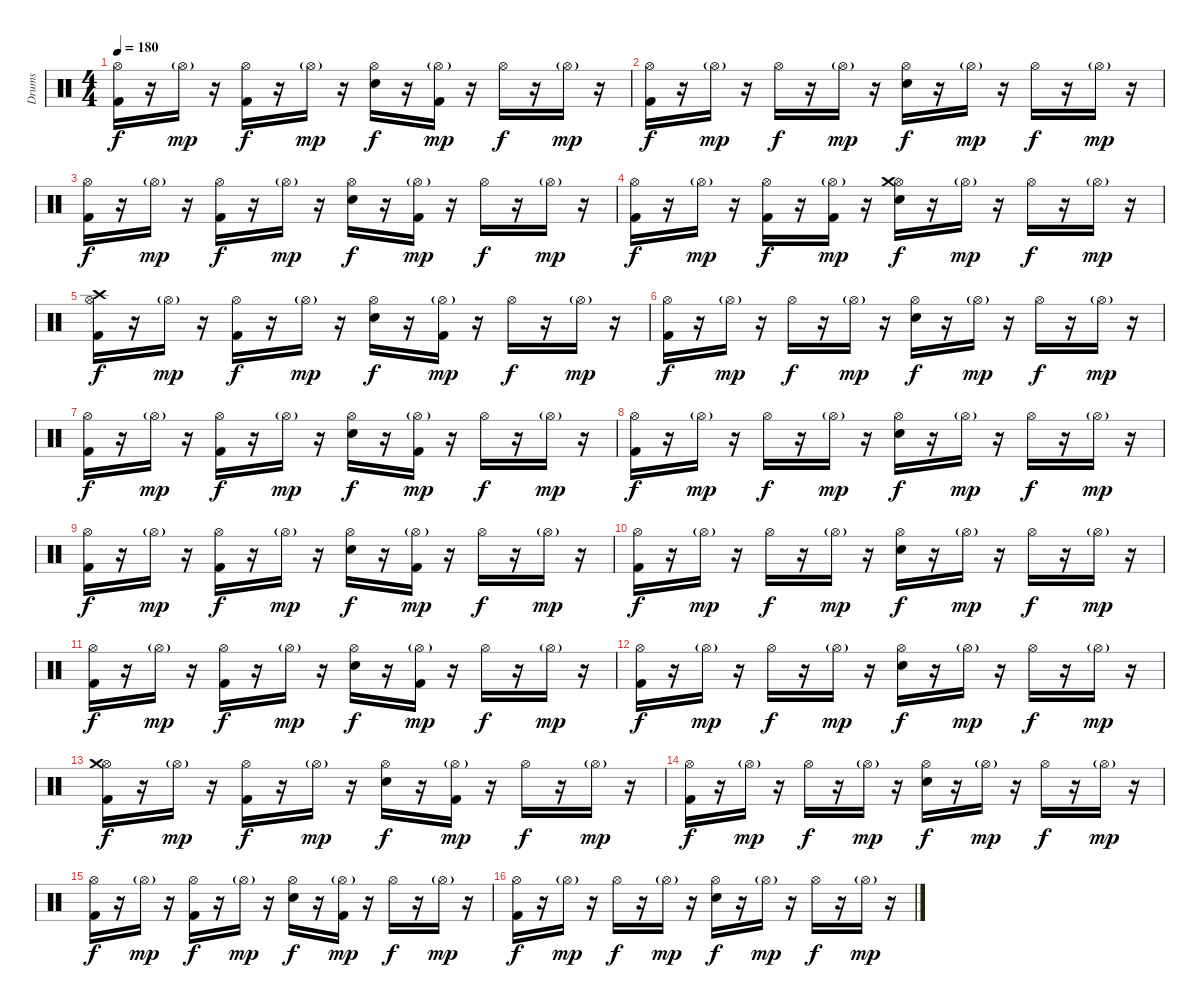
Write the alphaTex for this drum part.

\track ("Drums" "Drums") {instrument percussion}
\staff {score}
\articulation defaults
\ts (4 4)
\tempo 180
\clef neutral
\ks c
("Hi-Hat (open)" "Kick (hit) 2").16{dy f} r.16 "Hi-Hat (open)"{g}.16{dy mp} r.16 ("Hi-Hat (open)" "Kick (hit) 2").16{dy f} r.16 "Hi-Hat (open)"{g}.16{dy mp} r.16 ("Hi-Hat (open)" "Electric Snare (hit)").16{dy f} r.16 ("Hi-Hat (open)"{g} "Kick (hit) 2").16{dy mp} r.16 "Hi-Hat (open)".16{dy f} r.16 "Hi-Hat (open)"{g}.16{dy mp} r.16 |
("Hi-Hat (open)" "Kick (hit) 2").16{dy f} r.16 "Hi-Hat (open)"{g}.16{dy mp} r.16 "Hi-Hat (open)".16{dy f} r.16 "Hi-Hat (open)"{g}.16{dy mp} r.16 ("Hi-Hat (open)" "Electric Snare (hit)").16{dy f} r.16 "Hi-Hat (open)"{g}.16{dy mp} r.16 "Hi-Hat (open)".16{dy f} r.16 "Hi-Hat (open)"{g}.16{dy mp} r.16 |
("Hi-Hat (open)" "Kick (hit) 2").16{dy f} r.16 "Hi-Hat (open)"{g}.16{dy mp} r.16 ("Hi-Hat (open)" "Kick (hit) 2").16{dy f} r.16 "Hi-Hat (open)"{g}.16{dy mp} r.16 ("Hi-Hat (open)" "Electric Snare (hit)").16{dy f} r.16 ("Hi-Hat (open)"{g} "Kick (hit) 2").16{dy mp} r.16 "Hi-Hat (open)".16{dy f} r.16 "Hi-Hat (open)"{g}.16{dy mp} r.16 |
("Hi-Hat (open)" "Kick (hit) 2").16{dy f} r.16 "Hi-Hat (open)"{g}.16{dy mp} r.16 ("Hi-Hat (open)" "Kick (hit) 2").16{dy f} r.16 ("Hi-Hat (open)"{g} "Kick (hit) 2").16{dy mp} r.16 ("Hi-Hat (open)" "Electric Snare (hit)" "Crash medium (hit)").16{dy f} r.16 "Hi-Hat (open)"{g}.16{dy mp} r.16 "Hi-Hat (open)".16{dy f} r.16 "Hi-Hat (open)"{g}.16{dy mp} r.16 |
("Hi-Hat (open)" "Crash high (hit)" "Kick (hit) 2").16{dy f} r.16 "Hi-Hat (open)"{g}.16{dy mp} r.16 ("Hi-Hat (open)" "Kick (hit) 2").16{dy f} r.16 "Hi-Hat (open)"{g}.16{dy mp} r.16 ("Hi-Hat (open)" "Electric Snare (hit)").16{dy f} r.16 ("Hi-Hat (open)"{g} "Kick (hit) 2").16{dy mp} r.16 "Hi-Hat (open)".16{dy f} r.16 "Hi-Hat (open)"{g}.16{dy mp} r.16 |
("Hi-Hat (open)" "Kick (hit) 2").16{dy f} r.16 "Hi-Hat (open)"{g}.16{dy mp} r.16 "Hi-Hat (open)".16{dy f} r.16 "Hi-Hat (open)"{g}.16{dy mp} r.16 ("Hi-Hat (open)" "Electric Snare (hit)").16{dy f} r.16 "Hi-Hat (open)"{g}.16{dy mp} r.16 "Hi-Hat (open)".16{dy f} r.16 "Hi-Hat (open)"{g}.16{dy mp} r.16 |
("Hi-Hat (open)" "Kick (hit) 2").16{dy f} r.16 "Hi-Hat (open)"{g}.16{dy mp} r.16 ("Hi-Hat (open)" "Kick (hit) 2").16{dy f} r.16 "Hi-Hat (open)"{g}.16{dy mp} r.16 ("Hi-Hat (open)" "Electric Snare (hit)").16{dy f} r.16 ("Hi-Hat (open)"{g} "Kick (hit) 2").16{dy mp} r.16 "Hi-Hat (open)".16{dy f} r.16 "Hi-Hat (open)"{g}.16{dy mp} r.16 |
("Hi-Hat (open)" "Kick (hit) 2").16{dy f} r.16 "Hi-Hat (open)"{g}.16{dy mp} r.16 "Hi-Hat (open)".16{dy f} r.16 "Hi-Hat (open)"{g}.16{dy mp} r.16 ("Hi-Hat (open)" "Electric Snare (hit)").16{dy f} r.16 "Hi-Hat (open)"{g}.16{dy mp} r.16 "Hi-Hat (open)".16{dy f} r.16 "Hi-Hat (open)"{g}.16{dy mp} r.16 |
("Hi-Hat (open)" "Kick (hit) 2").16{dy f} r.16 "Hi-Hat (open)"{g}.16{dy mp} r.16 ("Hi-Hat (open)" "Kick (hit) 2").16{dy f} r.16 "Hi-Hat (open)"{g}.16{dy mp} r.16 ("Hi-Hat (open)" "Electric Snare (hit)").16{dy f} r.16 ("Hi-Hat (open)"{g} "Kick (hit) 2").16{dy mp} r.16 "Hi-Hat (open)".16{dy f} r.16 "Hi-Hat (open)"{g}.16{dy mp} r.16 |
("Hi-Hat (open)" "Kick (hit) 2").16{dy f} r.16 "Hi-Hat (open)"{g}.16{dy mp} r.16 "Hi-Hat (open)".16{dy f} r.16 "Hi-Hat (open)"{g}.16{dy mp} r.16 ("Hi-Hat (open)" "Electric Snare (hit)").16{dy f} r.16 "Hi-Hat (open)"{g}.16{dy mp} r.16 "Hi-Hat (open)".16{dy f} r.16 "Hi-Hat (open)"{g}.16{dy mp} r.16 |
("Hi-Hat (open)" "Kick (hit) 2").16{dy f} r.16 "Hi-Hat (open)"{g}.16{dy mp} r.16 ("Hi-Hat (open)" "Kick (hit) 2").16{dy f} r.16 "Hi-Hat (open)"{g}.16{dy mp} r.16 ("Hi-Hat (open)" "Electric Snare (hit)").16{dy f} r.16 ("Hi-Hat (open)"{g} "Kick (hit) 2").16{dy mp} r.16 "Hi-Hat (open)".16{dy f} r.16 "Hi-Hat (open)"{g}.16{dy mp} r.16 |
("Hi-Hat (open)" "Kick (hit) 2").16{dy f} r.16 "Hi-Hat (open)"{g}.16{dy mp} r.16 "Hi-Hat (open)".16{dy f} r.16 "Hi-Hat (open)"{g}.16{dy mp} r.16 ("Hi-Hat (open)" "Electric Snare (hit)").16{dy f} r.16 "Hi-Hat (open)"{g}.16{dy mp} r.16 "Hi-Hat (open)".16{dy f} r.16 "Hi-Hat (open)"{g}.16{dy mp} r.16 |
("Hi-Hat (open)" "Crash medium (hit)" "Kick (hit) 2").16{dy f} r.16 "Hi-Hat (open)"{g}.16{dy mp} r.16 ("Hi-Hat (open)" "Kick (hit) 2").16{dy f} r.16 "Hi-Hat (open)"{g}.16{dy mp} r.16 ("Hi-Hat (open)" "Electric Snare (hit)").16{dy f} r.16 ("Hi-Hat (open)"{g} "Kick (hit) 2").16{dy mp} r.16 "Hi-Hat (open)".16{dy f} r.16 "Hi-Hat (open)"{g}.16{dy mp} r.16 |
("Hi-Hat (open)" "Kick (hit) 2").16{dy f} r.16 "Hi-Hat (open)"{g}.16{dy mp} r.16 "Hi-Hat (open)".16{dy f} r.16 "Hi-Hat (open)"{g}.16{dy mp} r.16 ("Hi-Hat (open)" "Electric Snare (hit)").16{dy f} r.16 "Hi-Hat (open)"{g}.16{dy mp} r.16 "Hi-Hat (open)".16{dy f} r.16 "Hi-Hat (open)"{g}.16{dy mp} r.16 |
("Hi-Hat (open)" "Kick (hit) 2").16{dy f} r.16 "Hi-Hat (open)"{g}.16{dy mp} r.16 ("Hi-Hat (open)" "Kick (hit) 2").16{dy f} r.16 "Hi-Hat (open)"{g}.16{dy mp} r.16 ("Hi-Hat (open)" "Electric Snare (hit)").16{dy f} r.16 ("Hi-Hat (open)"{g} "Kick (hit) 2").16{dy mp} r.16 "Hi-Hat (open)".16{dy f} r.16 "Hi-Hat (open)"{g}.16{dy mp} r.16 |
("Hi-Hat (open)" "Kick (hit) 2").16{dy f} r.16 "Hi-Hat (open)"{g}.16{dy mp} r.16 "Hi-Hat (open)".16{dy f} r.16 "Hi-Hat (open)"{g}.16{dy mp} r.16 ("Hi-Hat (open)" "Electric Snare (hit)").16{dy f} r.16 "Hi-Hat (open)"{g}.16{dy mp} r.16 "Hi-Hat (open)".16{dy f} r.16 "Hi-Hat (open)"{g}.16{dy mp} r.16
